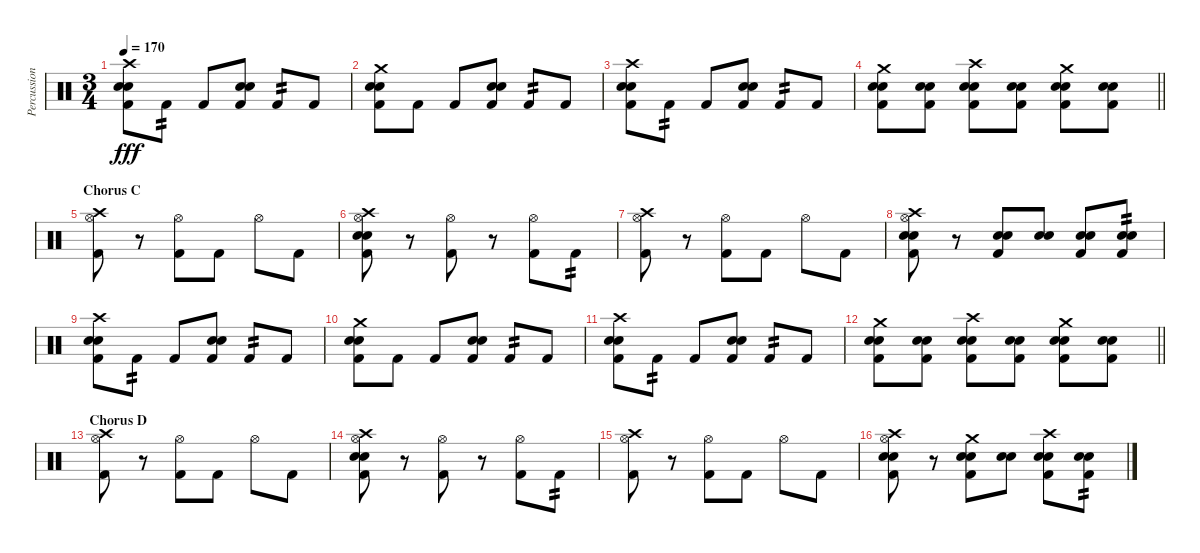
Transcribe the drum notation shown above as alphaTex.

\track ("Percussion" "Percussion") {instrument percussion}
\staff {score}
\articulation defaults
\ts (3 4)
\tempo 170
\clef neutral
\ks c
("Crash high (hit)" "Electric Snare (hit)" "Snare (hit) 2" "Kick (hit) 2").8{dy fff} "Kick (hit) 2".8{tp 2} "Kick (hit) 2".8 ("Electric Snare (hit)" "Snare (hit) 2" "Kick (hit) 2").8 "Kick (hit) 2".8{tp 2} "Kick (hit) 2".8 |
("Crash medium (hit)" "Electric Snare (hit)" "Snare (hit) 2" "Kick (hit) 2").8 "Kick (hit) 2".8 "Kick (hit) 2".8 ("Electric Snare (hit)" "Snare (hit) 2" "Kick (hit) 2").8 "Kick (hit) 2".8{tp 2} "Kick (hit) 2".8 |
("Crash high (hit)" "Electric Snare (hit)" "Snare (hit) 2" "Kick (hit) 2").8 "Kick (hit) 2".8{tp 2} "Kick (hit) 2".8 ("Electric Snare (hit)" "Snare (hit) 2" "Kick (hit) 2").8 "Kick (hit) 2".8{tp 2} "Kick (hit) 2".8 |
\barLineRight lightlight
("Crash medium (hit)" "Electric Snare (hit)" "Snare (hit) 2" "Kick (hit) 2").8 ("Electric Snare (hit)" "Snare (hit) 2" "Kick (hit) 2").8 ("Crash high (hit)" "Electric Snare (hit)" "Snare (hit) 2" "Kick (hit) 2").8 ("Electric Snare (hit)" "Snare (hit) 2" "Kick (hit) 2").8 ("Crash medium (hit)" "Electric Snare (hit)" "Snare (hit) 2" "Kick (hit) 2").8 ("Electric Snare (hit)" "Snare (hit) 2" "Kick (hit) 2").8 |
\section ("" "Chorus C")
("Crash high (hit)" "Hi-Hat (open)" "Kick (hit) 2").8 r.8 ("Hi-Hat (open)" "Kick (hit) 2").8 "Kick (hit) 2".8 "Hi-Hat (open)".8 "Kick (hit) 2".8 |
("Crash high (hit)" "Hi-Hat (open)" "Electric Snare (hit)" "Snare (hit) 2" "Kick (hit) 2").8 r.8 ("Hi-Hat (open)" "Kick (hit) 2").8 r.8 ("Hi-Hat (open)" "Kick (hit) 2").8 "Kick (hit) 2".8{tp 2} |
("Crash high (hit)" "Hi-Hat (open)" "Kick (hit) 2").8 r.8 ("Hi-Hat (open)" "Kick (hit) 2").8 "Kick (hit) 2".8 "Hi-Hat (open)".8 "Kick (hit) 2".8 |
("Crash high (hit)" "Hi-Hat (open)" "Electric Snare (hit)" "Snare (hit) 2" "Kick (hit) 2").8 r.8 ("Electric Snare (hit)" "Snare (hit) 2" "Kick (hit) 2").8 ("Electric Snare (hit)" "Snare (hit) 2").8 ("Electric Snare (hit)" "Snare (hit) 2" "Kick (hit) 2").8 ("Electric Snare (hit)" "Snare (hit) 2" "Kick (hit) 2").8{tp 2} |
("Crash high (hit)" "Electric Snare (hit)" "Snare (hit) 2" "Kick (hit) 2").8 "Kick (hit) 2".8{tp 2} "Kick (hit) 2".8 ("Electric Snare (hit)" "Snare (hit) 2" "Kick (hit) 2").8 "Kick (hit) 2".8{tp 2} "Kick (hit) 2".8 |
("Crash medium (hit)" "Electric Snare (hit)" "Snare (hit) 2" "Kick (hit) 2").8 "Kick (hit) 2".8 "Kick (hit) 2".8 ("Electric Snare (hit)" "Snare (hit) 2" "Kick (hit) 2").8 "Kick (hit) 2".8{tp 2} "Kick (hit) 2".8 |
("Crash high (hit)" "Electric Snare (hit)" "Snare (hit) 2" "Kick (hit) 2").8 "Kick (hit) 2".8{tp 2} "Kick (hit) 2".8 ("Electric Snare (hit)" "Snare (hit) 2" "Kick (hit) 2").8 "Kick (hit) 2".8{tp 2} "Kick (hit) 2".8 |
\barLineRight lightlight
("Crash medium (hit)" "Electric Snare (hit)" "Snare (hit) 2" "Kick (hit) 2").8 ("Electric Snare (hit)" "Snare (hit) 2" "Kick (hit) 2").8 ("Crash high (hit)" "Electric Snare (hit)" "Snare (hit) 2" "Kick (hit) 2").8 ("Electric Snare (hit)" "Snare (hit) 2" "Kick (hit) 2").8 ("Crash medium (hit)" "Electric Snare (hit)" "Snare (hit) 2" "Kick (hit) 2").8 ("Electric Snare (hit)" "Snare (hit) 2" "Kick (hit) 2").8 |
\section ("" "Chorus D")
("Crash high (hit)" "Hi-Hat (open)" "Kick (hit) 2").8 r.8 ("Hi-Hat (open)" "Kick (hit) 2").8 "Kick (hit) 2".8 "Hi-Hat (open)".8 "Kick (hit) 2".8 |
("Crash high (hit)" "Hi-Hat (open)" "Electric Snare (hit)" "Snare (hit) 2" "Kick (hit) 2").8 r.8 ("Hi-Hat (open)" "Kick (hit) 2").8 r.8 ("Hi-Hat (open)" "Kick (hit) 2").8 "Kick (hit) 2".8{tp 2} |
("Crash high (hit)" "Hi-Hat (open)" "Kick (hit) 2").8 r.8 ("Hi-Hat (open)" "Kick (hit) 2").8 "Kick (hit) 2".8 "Hi-Hat (open)".8 "Kick (hit) 2".8 |
("Crash high (hit)" "Hi-Hat (open)" "Electric Snare (hit)" "Snare (hit) 2" "Kick (hit) 2").8 r.8 ("Crash medium (hit)" "Electric Snare (hit)" "Snare (hit) 2" "Kick (hit) 2").8 ("Electric Snare (hit)" "Snare (hit) 2").8 ("Crash high (hit)" "Electric Snare (hit)" "Snare (hit) 2" "Kick (hit) 2").8 ("Electric Snare (hit)" "Snare (hit) 2" "Kick (hit) 2").8{tp 2}
